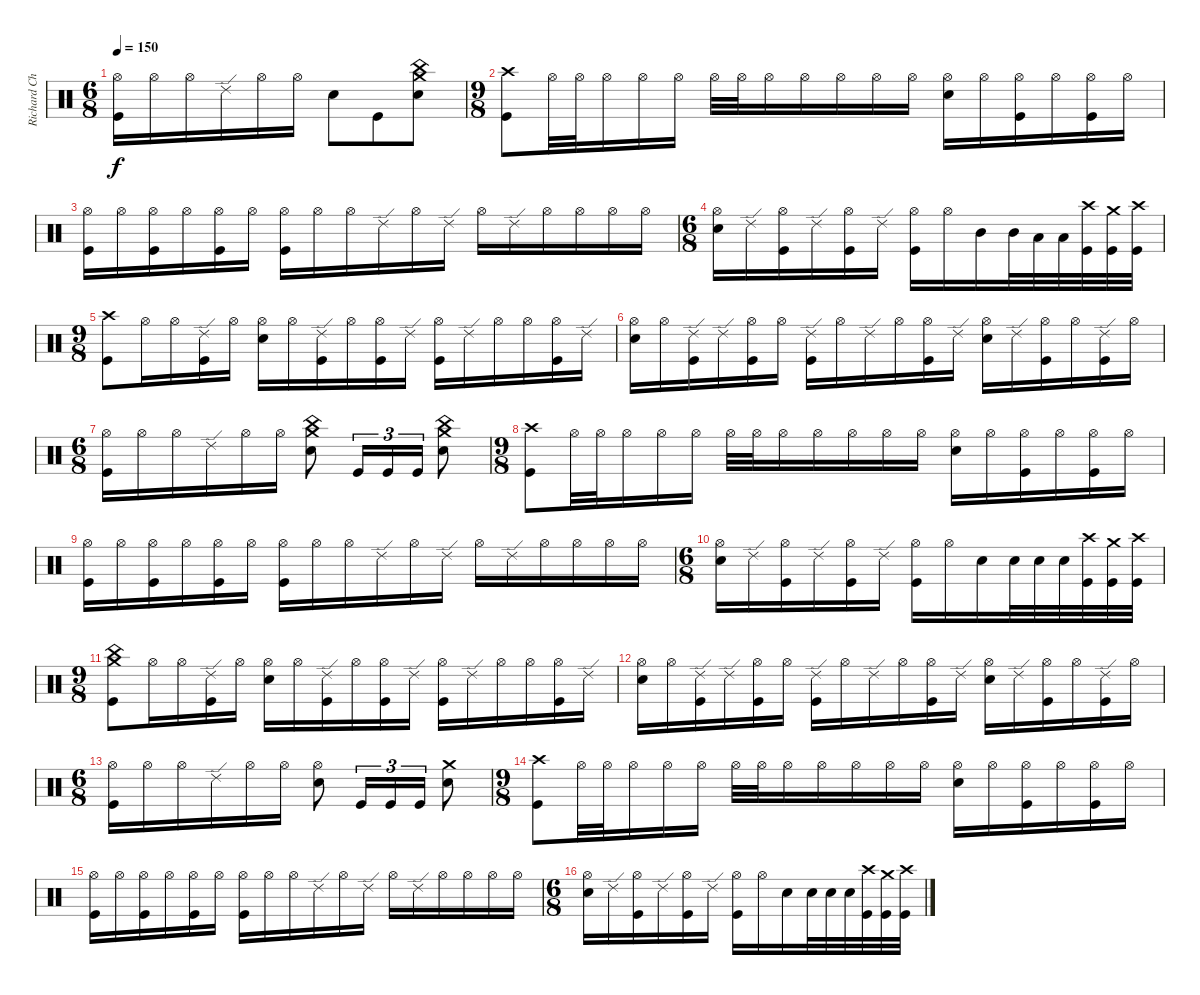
\track ("Richard Christy " "Richard Ch") {instrument percussion}
\staff {score}
\articulation defaults
\ts (6 8)
\tempo 150
\clef neutral
\ks c
("Hi-Hat (open)" "Kick (hit)").16{dy f} "Hi-Hat (open)".16 "Hi-Hat (open)".16 "Ride (edge) 2".16 "Hi-Hat (open)".16 "Hi-Hat (open)".16 "Electric Snare (hit)".8 "Kick (hit)".8 ("Crash medium (hit)" "China (hit)" "Electric Snare (hit)").8 |
\ts (9 8)
("Crash high (hit)" "Kick (hit)").8 "Hi-Hat (open)".32 "Hi-Hat (open)".32 "Hi-Hat (open)".16 "Hi-Hat (open)".16 "Hi-Hat (open)".16 "Hi-Hat (open)".32 "Hi-Hat (open)".32 "Hi-Hat (open)".16 "Hi-Hat (open)".16 "Hi-Hat (open)".16 "Hi-Hat (open)".16 "Hi-Hat (open)".16 ("Hi-Hat (open)" "Electric Snare (hit)").16 "Hi-Hat (open)".16 ("Hi-Hat (open)" "Kick (hit)").16 "Hi-Hat (open)".16 ("Hi-Hat (open)" "Kick (hit)").16 "Hi-Hat (open)".16 |
("Hi-Hat (open)" "Kick (hit)").16 "Hi-Hat (open)".16 ("Hi-Hat (open)" "Kick (hit)").16 "Hi-Hat (open)".16 ("Hi-Hat (open)" "Kick (hit)").16 "Hi-Hat (open)".16 ("Hi-Hat (open)" "Kick (hit)").16 "Hi-Hat (open)".16 "Hi-Hat (open)".16 "Ride (edge) 2".16 "Hi-Hat (open)".16 "Ride (edge) 2".16 "Hi-Hat (open)".16 "Ride (edge) 2".16 "Hi-Hat (open)".16 "Hi-Hat (open)".16 "Hi-Hat (open)".16 "Hi-Hat (open)".16 |
\ts (6 8)
("Hi-Hat (open)" "Electric Snare (hit)").16 "Ride (edge) 2".16 ("Hi-Hat (open)" "Kick (hit)").16 "Ride (edge) 2".16 ("Hi-Hat (open)" "Kick (hit)").16 "Ride (edge) 2".16 ("Hi-Hat (open)" "Kick (hit)").16 "Hi-Hat (open)".16 "Mid Tom (hit)".16 "Mid Tom (hit)".32 "Low Tom (hit)".32 "Low Tom (hit)".32 ("Crash high (hit)" "Kick (hit)").32 ("Crash medium (hit)" "Kick (hit)").32 ("Crash high (hit)" "Kick (hit)").32 |
\ts (9 8)
("Crash high (hit)" "Kick (hit)").8 "Hi-Hat (open)".16 "Hi-Hat (open)".16 ("Ride (edge) 2" "Kick (hit)").16 "Hi-Hat (open)".16 ("Hi-Hat (open)" "Electric Snare (hit)").16 "Hi-Hat (open)".16 ("Ride (edge) 2" "Kick (hit)").16 "Hi-Hat (open)".16 ("Hi-Hat (open)" "Kick (hit)").16 "Ride (edge) 2".16 ("Hi-Hat (open)" "Kick (hit)").16 "Ride (edge) 2".16 "Hi-Hat (open)".16 "Hi-Hat (open)".16 ("Hi-Hat (open)" "Kick (hit)").16 "Ride (edge) 2".16 |
("Hi-Hat (open)" "Electric Snare (hit)").16 "Hi-Hat (open)".16 ("Ride (edge) 2" "Kick (hit)").16 "Ride (edge) 2".16 ("Hi-Hat (open)" "Kick (hit)").16 "Hi-Hat (open)".16 ("Ride (edge) 2" "Kick (hit)").16 "Hi-Hat (open)".16 "Ride (edge) 2".16 "Hi-Hat (open)".16 ("Hi-Hat (open)" "Kick (hit)").16 "Ride (edge) 2".16 ("Hi-Hat (open)" "Electric Snare (hit)").16 "Ride (edge) 2".16 ("Hi-Hat (open)" "Kick (hit)").16 "Hi-Hat (open)".16 ("Ride (edge) 2" "Kick (hit)").16 "Hi-Hat (open)".16 |
\ts (6 8)
("Hi-Hat (open)" "Kick (hit)").16 "Hi-Hat (open)".16 "Hi-Hat (open)".16 "Ride (edge) 2".16 "Hi-Hat (open)".16 "Hi-Hat (open)".16 ("Crash medium (hit)" "China (hit)" "Electric Snare (hit)").8 "Kick (hit)".16{tu (3 2)} "Kick (hit)".16{tu (3 2)} "Kick (hit)".16{tu (3 2)} ("Crash medium (hit)" "China (hit)" "Electric Snare (hit)").8 |
\ts (9 8)
("Crash high (hit)" "Kick (hit)").8 "Hi-Hat (open)".32 "Hi-Hat (open)".32 "Hi-Hat (open)".16 "Hi-Hat (open)".16 "Hi-Hat (open)".16 "Hi-Hat (open)".32 "Hi-Hat (open)".32 "Hi-Hat (open)".16 "Hi-Hat (open)".16 "Hi-Hat (open)".16 "Hi-Hat (open)".16 "Hi-Hat (open)".16 ("Hi-Hat (open)" "Electric Snare (hit)").16 "Hi-Hat (open)".16 ("Hi-Hat (open)" "Kick (hit)").16 "Hi-Hat (open)".16 ("Hi-Hat (open)" "Kick (hit)").16 "Hi-Hat (open)".16 |
("Hi-Hat (open)" "Kick (hit)").16 "Hi-Hat (open)".16 ("Hi-Hat (open)" "Kick (hit)").16 "Hi-Hat (open)".16 ("Hi-Hat (open)" "Kick (hit)").16 "Hi-Hat (open)".16 ("Hi-Hat (open)" "Kick (hit)").16 "Hi-Hat (open)".16 "Hi-Hat (open)".16 "Ride (edge) 2".16 "Hi-Hat (open)".16 "Ride (edge) 2".16 "Hi-Hat (open)".16 "Ride (edge) 2".16 "Hi-Hat (open)".16 "Hi-Hat (open)".16 "Hi-Hat (open)".16 "Hi-Hat (open)".16 |
\ts (6 8)
("Hi-Hat (open)" "Electric Snare (hit)").16 "Ride (edge) 2".16 ("Hi-Hat (open)" "Kick (hit)").16 "Ride (edge) 2".16 ("Hi-Hat (open)" "Kick (hit)").16 "Ride (edge) 2".16 ("Hi-Hat (open)" "Kick (hit)").16 "Hi-Hat (open)".16 "Electric Snare (hit)".16 "Electric Snare (hit)".32 "Electric Snare (hit)".32 "Electric Snare (hit)".32 ("Crash high (hit)" "Kick (hit)").32 ("Crash medium (hit)" "Kick (hit)").32 ("Crash high (hit)" "Kick (hit)").32 |
\ts (9 8)
("Crash medium (hit)" "China (hit)" "Kick (hit)").8 "Hi-Hat (open)".16 "Hi-Hat (open)".16 ("Ride (edge) 2" "Kick (hit)").16 "Hi-Hat (open)".16 ("Hi-Hat (open)" "Electric Snare (hit)").16 "Hi-Hat (open)".16 ("Ride (edge) 2" "Kick (hit)").16 "Hi-Hat (open)".16 ("Hi-Hat (open)" "Kick (hit)").16 "Ride (edge) 2".16 ("Hi-Hat (open)" "Kick (hit)").16 "Ride (edge) 2".16 "Hi-Hat (open)".16 "Hi-Hat (open)".16 ("Hi-Hat (open)" "Kick (hit)").16 "Ride (edge) 2".16 |
("Hi-Hat (open)" "Electric Snare (hit)").16 "Hi-Hat (open)".16 ("Ride (edge) 2" "Kick (hit)").16 "Ride (edge) 2".16 ("Hi-Hat (open)" "Kick (hit)").16 "Hi-Hat (open)".16 ("Ride (edge) 2" "Kick (hit)").16 "Hi-Hat (open)".16 "Ride (edge) 2".16 "Hi-Hat (open)".16 ("Hi-Hat (open)" "Kick (hit)").16 "Ride (edge) 2".16 ("Hi-Hat (open)" "Electric Snare (hit)").16 "Ride (edge) 2".16 ("Hi-Hat (open)" "Kick (hit)").16 "Hi-Hat (open)".16 ("Ride (edge) 2" "Kick (hit)").16 "Hi-Hat (open)".16 |
\ts (6 8)
("Hi-Hat (open)" "Kick (hit)").16 "Hi-Hat (open)".16 "Hi-Hat (open)".16 "Ride (edge) 2".16 "Hi-Hat (open)".16 "Hi-Hat (open)".16 ("Hi-Hat (open)" "Electric Snare (hit)").8 "Kick (hit)".16{tu (3 2)} "Kick (hit)".16{tu (3 2)} "Kick (hit)".16{tu (3 2)} ("Crash medium (hit)" "Electric Snare (hit)").8 |
\ts (9 8)
("Crash high (hit)" "Kick (hit)").8 "Hi-Hat (open)".32 "Hi-Hat (open)".32 "Hi-Hat (open)".16 "Hi-Hat (open)".16 "Hi-Hat (open)".16 "Hi-Hat (open)".32 "Hi-Hat (open)".32 "Hi-Hat (open)".16 "Hi-Hat (open)".16 "Hi-Hat (open)".16 "Hi-Hat (open)".16 "Hi-Hat (open)".16 ("Hi-Hat (open)" "Electric Snare (hit)").16 "Hi-Hat (open)".16 ("Hi-Hat (open)" "Kick (hit)").16 "Hi-Hat (open)".16 ("Hi-Hat (open)" "Kick (hit)").16 "Hi-Hat (open)".16 |
("Hi-Hat (open)" "Kick (hit)").16 "Hi-Hat (open)".16 ("Hi-Hat (open)" "Kick (hit)").16 "Hi-Hat (open)".16 ("Hi-Hat (open)" "Kick (hit)").16 "Hi-Hat (open)".16 ("Hi-Hat (open)" "Kick (hit)").16 "Hi-Hat (open)".16 "Hi-Hat (open)".16 "Ride (edge) 2".16 "Hi-Hat (open)".16 "Ride (edge) 2".16 "Hi-Hat (open)".16 "Ride (edge) 2".16 "Hi-Hat (open)".16 "Hi-Hat (open)".16 "Hi-Hat (open)".16 "Hi-Hat (open)".16 |
\ts (6 8)
("Hi-Hat (open)" "Electric Snare (hit)").16 "Ride (edge) 2".16 ("Hi-Hat (open)" "Kick (hit)").16 "Ride (edge) 2".16 ("Hi-Hat (open)" "Kick (hit)").16 "Ride (edge) 2".16 ("Hi-Hat (open)" "Kick (hit)").16 "Hi-Hat (open)".16 "Electric Snare (hit)".16 "Electric Snare (hit)".32 "Electric Snare (hit)".32 "Electric Snare (hit)".32 ("Crash high (hit)" "Kick (hit)").32 ("Crash medium (hit)" "Kick (hit)").32 ("Crash high (hit)" "Kick (hit)").32
